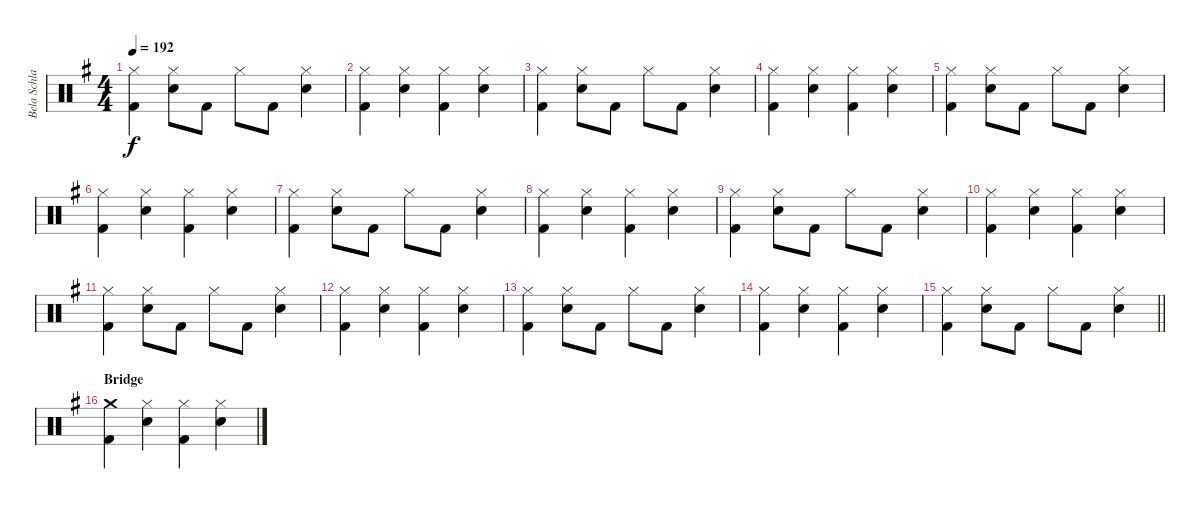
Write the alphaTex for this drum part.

\track ("Bela Schlagzeug" "Bela Schla") {instrument percussion}
\staff {score}
\articulation defaults
\ts (4 4)
\tempo 192
\clef neutral
\ks g
("Hi-Hat (closed)" "Kick (hit) 2").4{dy f} ("Hi-Hat (closed)" "Electric Snare (hit)").8 "Kick (hit) 2".8 "Hi-Hat (closed)".8 "Kick (hit) 2".8 ("Hi-Hat (closed)" "Electric Snare (hit)").4 |
("Hi-Hat (closed)" "Kick (hit) 2").4 ("Hi-Hat (closed)" "Electric Snare (hit)").4 ("Hi-Hat (closed)" "Kick (hit) 2").4 ("Hi-Hat (closed)" "Electric Snare (hit)").4 |
("Hi-Hat (closed)" "Kick (hit) 2").4 ("Hi-Hat (closed)" "Electric Snare (hit)").8 "Kick (hit) 2".8 "Hi-Hat (closed)".8 "Kick (hit) 2".8 ("Hi-Hat (closed)" "Electric Snare (hit)").4 |
("Hi-Hat (closed)" "Kick (hit) 2").4 ("Hi-Hat (closed)" "Electric Snare (hit)").4 ("Hi-Hat (closed)" "Kick (hit) 2").4 ("Hi-Hat (closed)" "Electric Snare (hit)").4 |
("Hi-Hat (closed)" "Kick (hit) 2").4 ("Hi-Hat (closed)" "Electric Snare (hit)").8 "Kick (hit) 2".8 "Hi-Hat (closed)".8 "Kick (hit) 2".8 ("Hi-Hat (closed)" "Electric Snare (hit)").4 |
("Hi-Hat (closed)" "Kick (hit) 2").4 ("Hi-Hat (closed)" "Electric Snare (hit)").4 ("Hi-Hat (closed)" "Kick (hit) 2").4 ("Hi-Hat (closed)" "Electric Snare (hit)").4 |
("Hi-Hat (closed)" "Kick (hit) 2").4 ("Hi-Hat (closed)" "Electric Snare (hit)").8 "Kick (hit) 2".8 "Hi-Hat (closed)".8 "Kick (hit) 2".8 ("Hi-Hat (closed)" "Electric Snare (hit)").4 |
("Hi-Hat (closed)" "Kick (hit) 2").4 ("Hi-Hat (closed)" "Electric Snare (hit)").4 ("Hi-Hat (closed)" "Kick (hit) 2").4 ("Hi-Hat (closed)" "Electric Snare (hit)").4 |
("Hi-Hat (closed)" "Kick (hit) 2").4 ("Hi-Hat (closed)" "Electric Snare (hit)").8 "Kick (hit) 2".8 "Hi-Hat (closed)".8 "Kick (hit) 2".8 ("Hi-Hat (closed)" "Electric Snare (hit)").4 |
("Hi-Hat (closed)" "Kick (hit) 2").4 ("Hi-Hat (closed)" "Electric Snare (hit)").4 ("Hi-Hat (closed)" "Kick (hit) 2").4 ("Hi-Hat (closed)" "Electric Snare (hit)").4 |
("Hi-Hat (closed)" "Kick (hit) 2").4 ("Hi-Hat (closed)" "Electric Snare (hit)").8 "Kick (hit) 2".8 "Hi-Hat (closed)".8 "Kick (hit) 2".8 ("Hi-Hat (closed)" "Electric Snare (hit)").4 |
("Hi-Hat (closed)" "Kick (hit) 2").4 ("Hi-Hat (closed)" "Electric Snare (hit)").4 ("Hi-Hat (closed)" "Kick (hit) 2").4 ("Hi-Hat (closed)" "Electric Snare (hit)").4 |
("Hi-Hat (closed)" "Kick (hit) 2").4 ("Hi-Hat (closed)" "Electric Snare (hit)").8 "Kick (hit) 2".8 "Hi-Hat (closed)".8 "Kick (hit) 2".8 ("Hi-Hat (closed)" "Electric Snare (hit)").4 |
("Hi-Hat (closed)" "Kick (hit) 2").4 ("Hi-Hat (closed)" "Electric Snare (hit)").4 ("Hi-Hat (closed)" "Kick (hit) 2").4 ("Hi-Hat (closed)" "Electric Snare (hit)").4 |
\barLineRight lightlight
("Hi-Hat (closed)" "Kick (hit) 2").4 ("Hi-Hat (closed)" "Electric Snare (hit)").8 "Kick (hit) 2".8 "Hi-Hat (closed)".8 "Kick (hit) 2".8 ("Hi-Hat (closed)" "Electric Snare (hit)").4 |
\section ("" "Bridge")
("Crash medium (hit)" "Kick (hit) 2").4 ("Hi-Hat (closed)" "Electric Snare (hit)").4 ("Hi-Hat (closed)" "Kick (hit) 2").4 ("Hi-Hat (closed)" "Electric Snare (hit)").4
